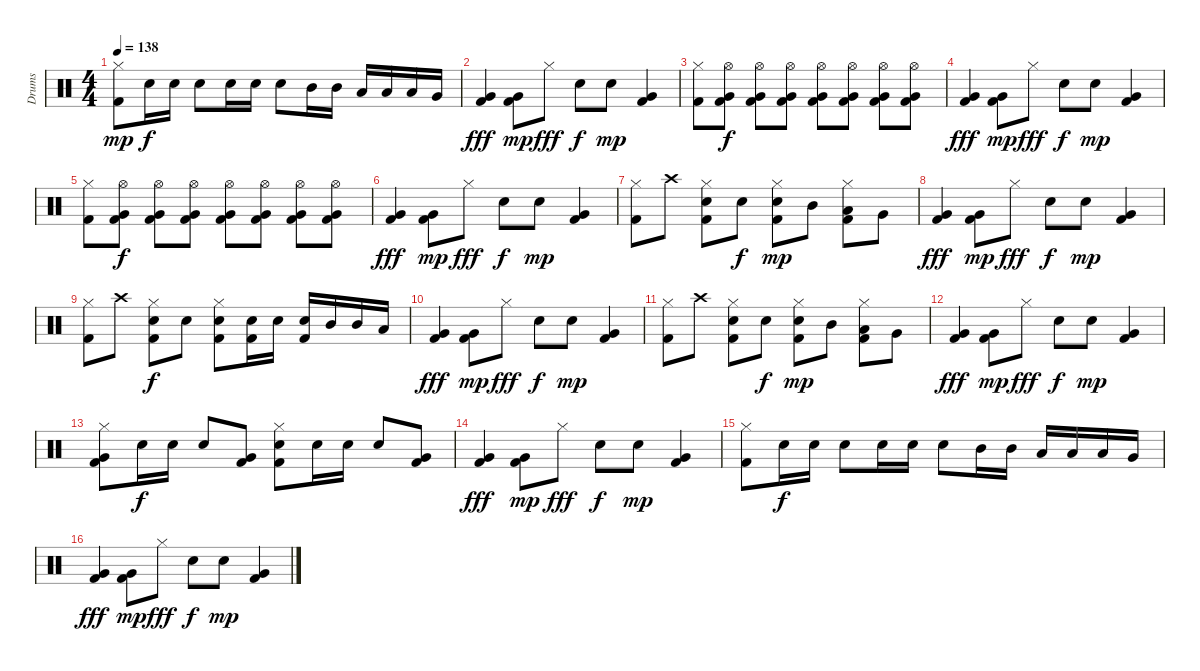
\track ("Drums" "Drums") {instrument percussion}
\staff {score}
\articulation defaults
\ts (4 4)
\tempo 138
\clef neutral
\ks c
("Hi-Hat (closed)" "Kick (hit) 2").8{dy mp} "Electric Snare (hit)".16{dy f} "Electric Snare (hit)".16 "Electric Snare (hit)".8 "Electric Snare (hit)".16 "Electric Snare (hit)".16 "Electric Snare (hit)".8 "Mid Tom (hit)".16 "Mid Tom (hit)".16 "Low Tom (hit)".16 "Low Tom (hit)".16 "Low Tom (hit)".16 "Very Low Tom (hit)".16 |
("Very Low Tom (hit)" "Kick (hit) 2").4{dy fff} ("Very Low Tom (hit)" "Kick (hit) 2").8{dy mp} "Hi-Hat (closed)".8{dy fff} "Electric Snare (hit)".8{dy f} "Electric Snare (hit)".8{dy mp} ("Very Low Tom (hit)" "Kick (hit) 2").4 |
("Hi-Hat (closed)" "Kick (hit) 2").8 ("Hi-Hat (open)" "Very Low Tom (hit)" "Kick (hit) 2").8{dy f} ("Hi-Hat (open)" "Very Low Tom (hit)" "Kick (hit) 2").8 ("Hi-Hat (open)" "Very Low Tom (hit)" "Kick (hit) 2").8 ("Hi-Hat (open)" "Very Low Tom (hit)" "Kick (hit) 2").8 ("Hi-Hat (open)" "Very Low Tom (hit)" "Kick (hit) 2").8 ("Hi-Hat (open)" "Very Low Tom (hit)" "Kick (hit) 2").8 ("Hi-Hat (open)" "Very Low Tom (hit)" "Kick (hit) 2").8 |
("Very Low Tom (hit)" "Kick (hit) 2").4{dy fff} ("Very Low Tom (hit)" "Kick (hit) 2").8{dy mp} "Hi-Hat (closed)".8{dy fff} "Electric Snare (hit)".8{dy f} "Electric Snare (hit)".8{dy mp} ("Very Low Tom (hit)" "Kick (hit) 2").4 |
("Hi-Hat (closed)" "Kick (hit) 2").8 ("Hi-Hat (open)" "Very Low Tom (hit)" "Kick (hit) 2").8{dy f} ("Hi-Hat (open)" "Very Low Tom (hit)" "Kick (hit) 2").8 ("Hi-Hat (open)" "Very Low Tom (hit)" "Kick (hit) 2").8 ("Hi-Hat (open)" "Very Low Tom (hit)" "Kick (hit) 2").8 ("Hi-Hat (open)" "Very Low Tom (hit)" "Kick (hit) 2").8 ("Hi-Hat (open)" "Very Low Tom (hit)" "Kick (hit) 2").8 ("Hi-Hat (open)" "Very Low Tom (hit)" "Kick (hit) 2").8 |
("Very Low Tom (hit)" "Kick (hit) 2").4{dy fff} ("Very Low Tom (hit)" "Kick (hit) 2").8{dy mp} "Hi-Hat (closed)".8{dy fff} "Electric Snare (hit)".8{dy f} "Electric Snare (hit)".8{dy mp} ("Very Low Tom (hit)" "Kick (hit) 2").4 |
("Hi-Hat (closed)" "Kick (hit) 2").8 "Crash high (hit)".8 ("Hi-Hat (closed)" "Electric Snare (hit)" "Kick (hit) 2").8 "Electric Snare (hit)".8{dy f} ("Hi-Hat (closed)" "Electric Snare (hit)" "Kick (hit) 2").8{dy mp} "Mid Tom (hit)".8 ("Hi-Hat (closed)" "Low Tom (hit)" "Kick (hit) 2").8 "Very Low Tom (hit)".8 |
("Very Low Tom (hit)" "Kick (hit) 2").4{dy fff} ("Very Low Tom (hit)" "Kick (hit) 2").8{dy mp} "Hi-Hat (closed)".8{dy fff} "Electric Snare (hit)".8{dy f} "Electric Snare (hit)".8{dy mp} ("Very Low Tom (hit)" "Kick (hit) 2").4 |
("Hi-Hat (closed)" "Kick (hit) 2").8 "Crash high (hit)".8 ("Hi-Hat (closed)" "Electric Snare (hit)" "Kick (hit) 2").8{dy f} "Electric Snare (hit)".8 ("Hi-Hat (closed)" "Electric Snare (hit)" "Kick (hit) 2").8 ("Electric Snare (hit)" "Kick (hit) 2").16 "Electric Snare (hit)".16 ("Electric Snare (hit)" "Kick (hit) 2").16 "Mid Tom (hit)".16 "Mid Tom (hit)".16 "Low Tom (hit)".16 |
("Very Low Tom (hit)" "Kick (hit) 2").4{dy fff} ("Very Low Tom (hit)" "Kick (hit) 2").8{dy mp} "Hi-Hat (closed)".8{dy fff} "Electric Snare (hit)".8{dy f} "Electric Snare (hit)".8{dy mp} ("Very Low Tom (hit)" "Kick (hit) 2").4 |
("Hi-Hat (closed)" "Kick (hit) 2").8 "Crash high (hit)".8 ("Hi-Hat (closed)" "Electric Snare (hit)" "Kick (hit) 2").8 "Electric Snare (hit)".8{dy f} ("Hi-Hat (closed)" "Electric Snare (hit)" "Kick (hit) 2").8{dy mp} "Mid Tom (hit)".8 ("Hi-Hat (closed)" "Low Tom (hit)" "Kick (hit) 2").8 "Very Low Tom (hit)".8 |
("Very Low Tom (hit)" "Kick (hit) 2").4{dy fff} ("Very Low Tom (hit)" "Kick (hit) 2").8{dy mp} "Hi-Hat (closed)".8{dy fff} "Electric Snare (hit)".8{dy f} "Electric Snare (hit)".8{dy mp} ("Very Low Tom (hit)" "Kick (hit) 2").4 |
("Hi-Hat (closed)" "Very Low Tom (hit)" "Kick (hit) 2").8 "Electric Snare (hit)".16{dy f} "Electric Snare (hit)".16 "Electric Snare (hit)".8 ("Very Low Tom (hit)" "Kick (hit) 2").8 ("Hi-Hat (closed)" "Electric Snare (hit)" "Kick (hit) 2").8 "Electric Snare (hit)".16 "Electric Snare (hit)".16 "Electric Snare (hit)".8 ("Very Low Tom (hit)" "Kick (hit) 2").8 |
("Very Low Tom (hit)" "Kick (hit) 2").4{dy fff} ("Very Low Tom (hit)" "Kick (hit) 2").8{dy mp} "Hi-Hat (closed)".8{dy fff} "Electric Snare (hit)".8{dy f} "Electric Snare (hit)".8{dy mp} ("Very Low Tom (hit)" "Kick (hit) 2").4 |
("Hi-Hat (closed)" "Kick (hit) 2").8 "Electric Snare (hit)".16{dy f} "Electric Snare (hit)".16 "Electric Snare (hit)".8 "Electric Snare (hit)".16 "Electric Snare (hit)".16 "Electric Snare (hit)".8 "Mid Tom (hit)".16 "Mid Tom (hit)".16 "Low Tom (hit)".16 "Low Tom (hit)".16 "Low Tom (hit)".16 "Very Low Tom (hit)".16 |
("Very Low Tom (hit)" "Kick (hit) 2").4{dy fff} ("Very Low Tom (hit)" "Kick (hit) 2").8{dy mp} "Hi-Hat (closed)".8{dy fff} "Electric Snare (hit)".8{dy f} "Electric Snare (hit)".8{dy mp} ("Very Low Tom (hit)" "Kick (hit) 2").4
